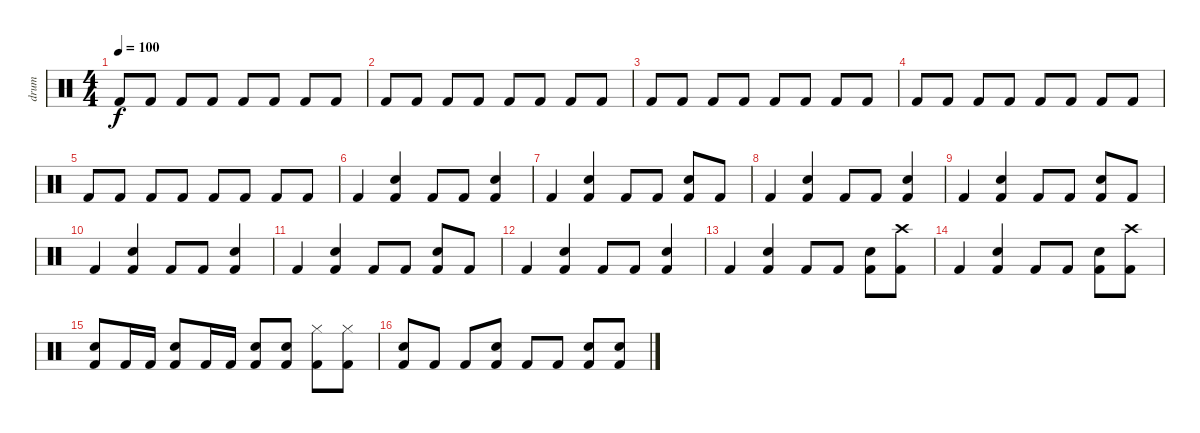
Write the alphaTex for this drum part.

\track ("drum" "drum") {instrument percussion}
\staff {score}
\articulation defaults
\ts (4 4)
\tempo 100
\clef neutral
\ks c "Kick (hit) 2".8{dy f} "Kick (hit) 2".8 "Kick (hit) 2".8 "Kick (hit) 2".8 "Kick (hit) 2".8 "Kick (hit) 2".8 "Kick (hit) 2".8 "Kick (hit) 2".8
|
"Kick (hit) 2".8 "Kick (hit) 2".8 "Kick (hit) 2".8 "Kick (hit) 2".8 "Kick (hit) 2".8 "Kick (hit) 2".8 "Kick (hit) 2".8 "Kick (hit) 2".8 |
"Kick (hit) 2".8 "Kick (hit) 2".8 "Kick (hit) 2".8 "Kick (hit) 2".8 "Kick (hit) 2".8 "Kick (hit) 2".8 "Kick (hit) 2".8 "Kick (hit) 2".8 |
"Kick (hit) 2".8 "Kick (hit) 2".8 "Kick (hit) 2".8 "Kick (hit) 2".8 "Kick (hit) 2".8 "Kick (hit) 2".8 "Kick (hit) 2".8 "Kick (hit) 2".8 |
"Kick (hit) 2".8 "Kick (hit) 2".8 "Kick (hit) 2".8 "Kick (hit) 2".8 "Kick (hit) 2".8 "Kick (hit) 2".8 "Kick (hit) 2".8 "Kick (hit) 2".8 |
"Kick (hit) 2".4 ("Electric Snare (hit)" "Kick (hit) 2").4 "Kick (hit) 2".8 "Kick (hit) 2".8 ("Electric Snare (hit)" "Kick (hit) 2").4 |
"Kick (hit) 2".4 ("Electric Snare (hit)" "Kick (hit) 2").4 "Kick (hit) 2".8 "Kick (hit) 2".8 ("Electric Snare (hit)" "Kick (hit) 2").8 "Kick (hit) 2".8 |
"Kick (hit) 2".4 ("Electric Snare (hit)" "Kick (hit) 2").4 "Kick (hit) 2".8 "Kick (hit) 2".8 ("Electric Snare (hit)" "Kick (hit) 2").4 |
"Kick (hit) 2".4 ("Electric Snare (hit)" "Kick (hit) 2").4 "Kick (hit) 2".8 "Kick (hit) 2".8 ("Electric Snare (hit)" "Kick (hit) 2").8 "Kick (hit) 2".8 |
"Kick (hit) 2".4 ("Electric Snare (hit)" "Kick (hit) 2").4 "Kick (hit) 2".8 "Kick (hit) 2".8 ("Electric Snare (hit)" "Kick (hit) 2").4 |
"Kick (hit) 2".4 ("Electric Snare (hit)" "Kick (hit) 2").4 "Kick (hit) 2".8 "Kick (hit) 2".8 ("Electric Snare (hit)" "Kick (hit) 2").8 "Kick (hit) 2".8 |
"Kick (hit) 2".4 ("Electric Snare (hit)" "Kick (hit) 2").4 "Kick (hit) 2".8 "Kick (hit) 2".8 ("Electric Snare (hit)" "Kick (hit) 2").4 |
"Kick (hit) 2".4 ("Electric Snare (hit)" "Kick (hit) 2").4 "Kick (hit) 2".8 "Kick (hit) 2".8 ("Electric Snare (hit)" "Kick (hit) 2").8 ("Crash high (hit)" "Kick (hit) 2").8 |
"Kick (hit) 2".4 ("Electric Snare (hit)" "Kick (hit) 2").4 "Kick (hit) 2".8 "Kick (hit) 2".8 ("Electric Snare (hit)" "Kick (hit) 2").8 ("Crash high (hit)" "Kick (hit) 2").8 |
("Electric Snare (hit)" "Kick (hit) 2").8 "Kick (hit) 2".16 "Kick (hit) 2".16 ("Electric Snare (hit)" "Kick (hit) 2").8 "Kick (hit) 2".16 "Kick (hit) 2".16 ("Electric Snare (hit)" "Kick (hit) 2").8 ("Electric Snare (hit)" "Kick (hit) 2").8 ("Hi-Hat (closed)" "Kick (hit) 2").8 ("Hi-Hat (closed)" "Kick (hit) 2").8 |
("Electric Snare (hit)" "Kick (hit) 2").8 "Kick (hit) 2".8 "Kick (hit) 2".8 ("Electric Snare (hit)" "Kick (hit) 2").8 "Kick (hit) 2".8 "Kick (hit) 2".8 ("Electric Snare (hit)" "Kick (hit) 2").8 ("Electric Snare (hit)" "Kick (hit) 2").8
